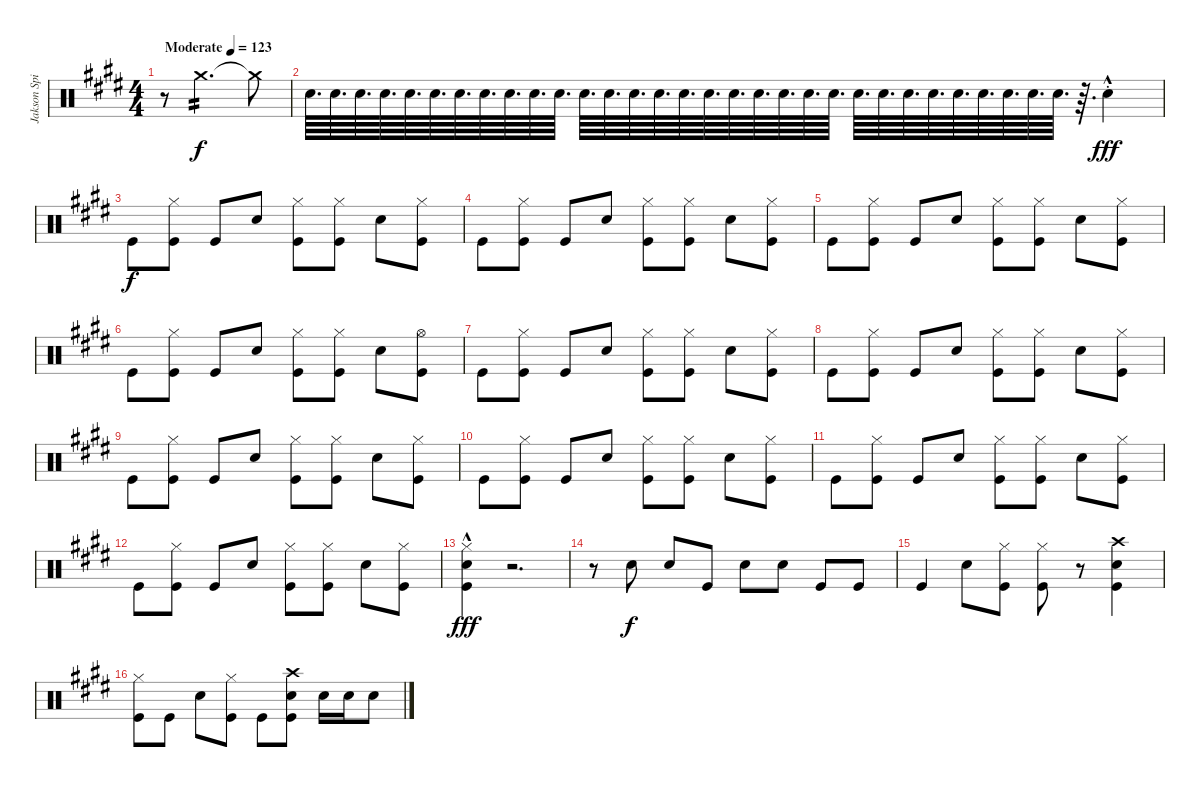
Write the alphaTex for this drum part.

\track ("Jakson Spires Drums" "Jakson Spi") {instrument percussion}
\staff {score}
\articulation defaults
\ts (4 4)
\tempo (123 "Moderate")
\clef neutral
\ks e
r.8{dy f} "Crash medium (hit)".2{d tp 2 volume 14} "Crash medium (hit)"{t}.8 |
"Snare (hit) 2".64{d} "Snare (hit) 2".64{d} "Snare (hit) 2".64{d} "Snare (hit) 2".64{d} "Snare (hit) 2".64{d} "Snare (hit) 2".64{d} "Snare (hit) 2".64{d} "Snare (hit) 2".64{d} "Snare (hit) 2".64{d} "Snare (hit) 2".64{d} "Snare (hit) 2".64{d} "Snare (hit) 2".64{d} "Snare (hit) 2".64{d} "Snare (hit) 2".64{d} "Snare (hit) 2".64{d} "Snare (hit) 2".64{d} "Snare (hit) 2".64{d} "Snare (hit) 2".64{d} "Snare (hit) 2".64{d} "Snare (hit) 2".64{d} "Snare (hit) 2".64{d} "Snare (hit) 2".64{d} "Snare (hit) 2".64{d} "Snare (hit) 2".64{d} "Snare (hit) 2".64{d} "Snare (hit) 2".64{d} "Snare (hit) 2".64{d} "Snare (hit) 2".64{d} "Snare (hit) 2".64{d} "Snare (hit) 2".64{d} "Snare (hit) 2".64{d} r.64{d} "Snare (hit) 2"{hac st}.4{dy fff volume 12} |
"Kick (hit)".8{dy f} ("Hi-Hat (closed)" "Kick (hit)").8 "Kick (hit)".8 "Snare (hit) 2".8 ("Hi-Hat (closed)" "Kick (hit)").8 ("Hi-Hat (closed)" "Kick (hit)").8 "Snare (hit) 2".8 ("Hi-Hat (closed)" "Kick (hit)").8 |
"Kick (hit)".8 ("Hi-Hat (closed)" "Kick (hit)").8 "Kick (hit)".8 "Snare (hit) 2".8 ("Hi-Hat (closed)" "Kick (hit)").8 ("Hi-Hat (closed)" "Kick (hit)").8 "Snare (hit) 2".8 ("Hi-Hat (closed)" "Kick (hit)").8 |
"Kick (hit)".8 ("Hi-Hat (closed)" "Kick (hit)").8 "Kick (hit)".8 "Snare (hit) 2".8 ("Hi-Hat (closed)" "Kick (hit)").8 ("Hi-Hat (closed)" "Kick (hit)").8 "Snare (hit) 2".8 ("Hi-Hat (closed)" "Kick (hit)").8 |
"Kick (hit)".8 ("Hi-Hat (closed)" "Kick (hit)").8 "Kick (hit)".8 "Snare (hit) 2".8 ("Hi-Hat (closed)" "Kick (hit)").8 ("Hi-Hat (closed)" "Kick (hit)").8 "Snare (hit) 2".8 ("Hi-Hat (open)" "Kick (hit)").8 |
"Kick (hit)".8 ("Hi-Hat (closed)" "Kick (hit)").8 "Kick (hit)".8 "Snare (hit) 2".8 ("Hi-Hat (closed)" "Kick (hit)").8 ("Hi-Hat (closed)" "Kick (hit)").8 "Snare (hit) 2".8 ("Hi-Hat (closed)" "Kick (hit)").8 |
"Kick (hit)".8 ("Hi-Hat (closed)" "Kick (hit)").8 "Kick (hit)".8 "Snare (hit) 2".8 ("Hi-Hat (closed)" "Kick (hit)").8 ("Hi-Hat (closed)" "Kick (hit)").8 "Snare (hit) 2".8 ("Hi-Hat (closed)" "Kick (hit)").8 |
"Kick (hit)".8 ("Hi-Hat (closed)" "Kick (hit)").8 "Kick (hit)".8 "Snare (hit) 2".8 ("Hi-Hat (closed)" "Kick (hit)").8 ("Hi-Hat (closed)" "Kick (hit)").8 "Snare (hit) 2".8 ("Hi-Hat (closed)" "Kick (hit)").8 |
"Kick (hit)".8 ("Hi-Hat (closed)" "Kick (hit)").8 "Kick (hit)".8 "Snare (hit) 2".8 ("Hi-Hat (closed)" "Kick (hit)").8 ("Hi-Hat (closed)" "Kick (hit)").8 "Snare (hit) 2".8 ("Hi-Hat (closed)" "Kick (hit)").8 |
"Kick (hit)".8 ("Hi-Hat (closed)" "Kick (hit)").8 "Kick (hit)".8 "Snare (hit) 2".8 ("Hi-Hat (closed)" "Kick (hit)").8 ("Hi-Hat (closed)" "Kick (hit)").8 "Snare (hit) 2".8 ("Hi-Hat (closed)" "Kick (hit)").8 |
"Kick (hit)".8 ("Hi-Hat (closed)" "Kick (hit)").8 "Kick (hit)".8 "Snare (hit) 2".8 ("Hi-Hat (closed)" "Kick (hit)").8 ("Hi-Hat (closed)" "Kick (hit)").8 "Snare (hit) 2".8 ("Hi-Hat (closed)" "Kick (hit)").8 |
("Hi-Hat (closed)"{hac} "Snare (hit) 2" "Kick (hit)").4{dy fff} r.2{d} |
r.8 "Snare (hit) 2".8{dy f} "Snare (hit) 2".8 "Kick (hit)".8 "Snare (hit) 2".8 "Snare (hit) 2".8 "Kick (hit)".8 "Kick (hit)".8 |
"Kick (hit)".4 "Snare (hit) 2".8 ("Hi-Hat (closed)" "Kick (hit)").8 ("Hi-Hat (closed)" "Kick (hit)").8 r.8 ("Crash high (hit)" "Snare (hit) 2" "Kick (hit)").4 |
("Hi-Hat (closed)" "Kick (hit)").8 "Kick (hit)".8 "Snare (hit) 2".8 ("Hi-Hat (closed)" "Kick (hit)").8 "Kick (hit)".8 ("Crash high (hit)" "Snare (hit) 2" "Kick (hit)").8 "Snare (hit) 2".16 "Snare (hit) 2".16 "Snare (hit) 2".8
